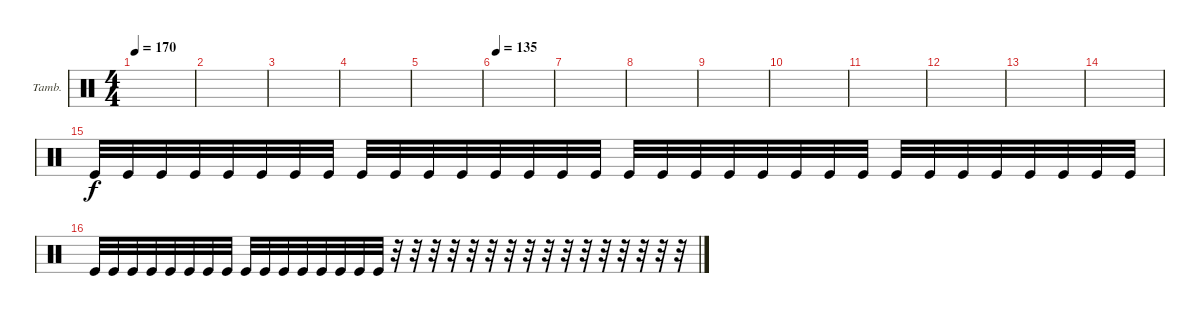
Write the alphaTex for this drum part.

\defaultSystemsLayout 4
\bracketExtendMode groupsimilarinstruments
\firstSystemTrackNameOrientation horizontal
\otherSystemsTrackNameOrientation horizontal
\track ("Tambourine" "Tamb.") {instrument percussion}
\staff {score}
\articulation defaults
\ts (4 4)
\tempo 170
\clef neutral
\scale
0.333333
\ks c
|
\scale
0.333333 |
\scale
0.333333 |
\scale
0.333333 |
\scale
0.333333 |
\tempo (135 0.025)
\scale
0.333333 |
\scale
0.333333 |
\scale
0.333333 |
\scale
0.333333 |
\scale
0.333333 |
\scale
0.333333 |
\scale
0.333333 |
\scale
0.333333 |
\scale
0.333333 |
"Kick (hit)".32 "Kick (hit)".32 "Kick (hit)".32 "Kick (hit)".32 "Kick (hit)".32 "Kick (hit)".32 "Kick (hit)".32 "Kick (hit)".32 "Kick (hit)".32 "Kick (hit)".32 "Kick (hit)".32 "Kick (hit)".32 "Kick (hit)".32 "Kick (hit)".32 "Kick (hit)".32 "Kick (hit)".32 "Kick (hit)".32 "Kick (hit)".32 "Kick (hit)".32 "Kick (hit)".32 "Kick (hit)".32 "Kick (hit)".32 "Kick (hit)".32 "Kick (hit)".32 "Kick (hit)".32 "Kick (hit)".32 "Kick (hit)".32 "Kick (hit)".32 "Kick (hit)".32 "Kick (hit)".32 "Kick (hit)".32 "Kick (hit)".32 |
"Kick (hit)".32 "Kick (hit)".32 "Kick (hit)".32 "Kick (hit)".32 "Kick (hit)".32 "Kick (hit)".32 "Kick (hit)".32 "Kick (hit)".32 "Kick (hit)".32 "Kick (hit)".32 "Kick (hit)".32 "Kick (hit)".32 "Kick (hit)".32 "Kick (hit)".32 "Kick (hit)".32 "Kick (hit)".32 r.32 r.32 r.32 r.32 r.32 r.32 r.32 r.32 r.32 r.32 r.32 r.32 r.32 r.32 r.32 r.32
